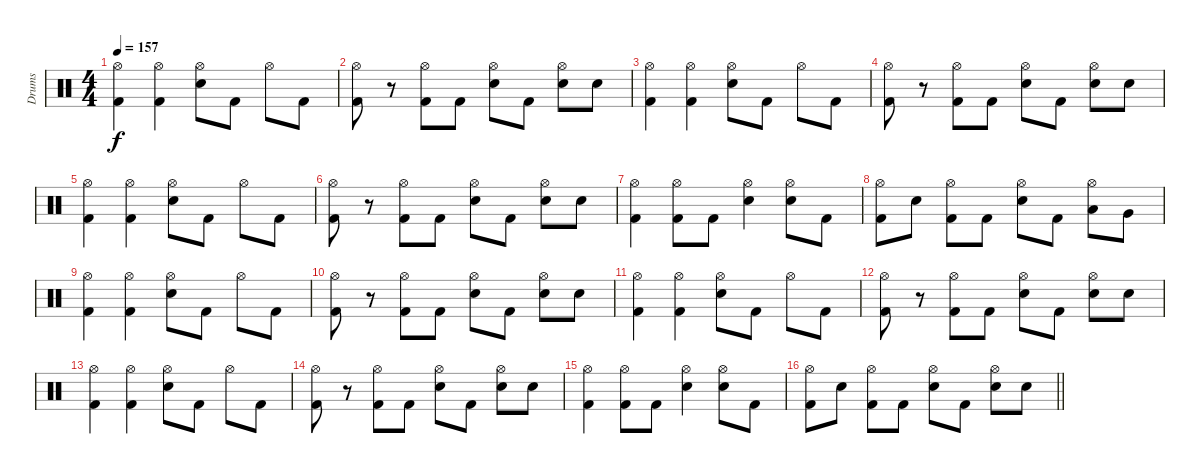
\track ("Drums" "Drums") {instrument percussion}
\staff {score}
\articulation defaults
\ts (4 4)
\tempo 157
\clef neutral
\ks c
("Hi-Hat (open)" "Kick (hit) 2").4{dy f} ("Hi-Hat (open)" "Kick (hit) 2").4 ("Hi-Hat (open)" "Electric Snare (hit)").8 "Kick (hit) 2".8 "Hi-Hat (open)".8 "Kick (hit) 2".8 |
("Hi-Hat (open)" "Kick (hit) 2").8 r.8 ("Hi-Hat (open)" "Kick (hit) 2").8 "Kick (hit) 2".8 ("Hi-Hat (open)" "Electric Snare (hit)").8 "Kick (hit) 2".8 ("Hi-Hat (open)" "Electric Snare (hit)").8 "Electric Snare (hit)".8 |
("Hi-Hat (open)" "Kick (hit) 2").4 ("Hi-Hat (open)" "Kick (hit) 2").4 ("Hi-Hat (open)" "Electric Snare (hit)").8 "Kick (hit) 2".8 "Hi-Hat (open)".8 "Kick (hit) 2".8 |
("Hi-Hat (open)" "Kick (hit) 2").8 r.8 ("Hi-Hat (open)" "Kick (hit) 2").8 "Kick (hit) 2".8 ("Hi-Hat (open)" "Electric Snare (hit)").8 "Kick (hit) 2".8 ("Hi-Hat (open)" "Electric Snare (hit)").8 "Electric Snare (hit)".8 |
("Hi-Hat (open)" "Kick (hit) 2").4 ("Hi-Hat (open)" "Kick (hit) 2").4 ("Hi-Hat (open)" "Electric Snare (hit)").8 "Kick (hit) 2".8 "Hi-Hat (open)".8 "Kick (hit) 2".8 |
("Hi-Hat (open)" "Kick (hit) 2").8 r.8 ("Hi-Hat (open)" "Kick (hit) 2").8 "Kick (hit) 2".8 ("Hi-Hat (open)" "Electric Snare (hit)").8 "Kick (hit) 2".8 ("Hi-Hat (open)" "Electric Snare (hit)").8 "Electric Snare (hit)".8 |
("Hi-Hat (open)" "Kick (hit) 2").4 ("Hi-Hat (open)" "Kick (hit) 2").8 "Kick (hit) 2".8 ("Hi-Hat (open)" "Electric Snare (hit)").4 ("Hi-Hat (open)" "Electric Snare (hit)").8 "Kick (hit) 2".8 |
("Hi-Hat (open)" "Kick (hit) 2").8 "Electric Snare (hit)".8 ("Hi-Hat (open)" "Kick (hit) 2").8 "Kick (hit) 2".8 ("Hi-Hat (open)" "Electric Snare (hit)").8 "Kick (hit) 2".8 ("Hi-Hat (open)" "Low Tom (hit)").8 "Very Low Tom (hit)".8 |
("Hi-Hat (open)" "Kick (hit) 2").4 ("Hi-Hat (open)" "Kick (hit) 2").4 ("Hi-Hat (open)" "Electric Snare (hit)").8 "Kick (hit) 2".8 "Hi-Hat (open)".8 "Kick (hit) 2".8 |
("Hi-Hat (open)" "Kick (hit) 2").8 r.8 ("Hi-Hat (open)" "Kick (hit) 2").8 "Kick (hit) 2".8 ("Hi-Hat (open)" "Electric Snare (hit)").8 "Kick (hit) 2".8 ("Hi-Hat (open)" "Electric Snare (hit)").8 "Electric Snare (hit)".8 |
("Hi-Hat (open)" "Kick (hit) 2").4 ("Hi-Hat (open)" "Kick (hit) 2").4 ("Hi-Hat (open)" "Electric Snare (hit)").8 "Kick (hit) 2".8 "Hi-Hat (open)".8 "Kick (hit) 2".8 |
("Hi-Hat (open)" "Kick (hit) 2").8 r.8 ("Hi-Hat (open)" "Kick (hit) 2").8 "Kick (hit) 2".8 ("Hi-Hat (open)" "Electric Snare (hit)").8 "Kick (hit) 2".8 ("Hi-Hat (open)" "Electric Snare (hit)").8 "Electric Snare (hit)".8 |
("Hi-Hat (open)" "Kick (hit) 2").4 ("Hi-Hat (open)" "Kick (hit) 2").4 ("Hi-Hat (open)" "Electric Snare (hit)").8 "Kick (hit) 2".8 "Hi-Hat (open)".8 "Kick (hit) 2".8 |
("Hi-Hat (open)" "Kick (hit) 2").8 r.8 ("Hi-Hat (open)" "Kick (hit) 2").8 "Kick (hit) 2".8 ("Hi-Hat (open)" "Electric Snare (hit)").8 "Kick (hit) 2".8 ("Hi-Hat (open)" "Electric Snare (hit)").8 "Electric Snare (hit)".8 |
("Hi-Hat (open)" "Kick (hit) 2").4 ("Hi-Hat (open)" "Kick (hit) 2").8 "Kick (hit) 2".8 ("Hi-Hat (open)" "Electric Snare (hit)").4 ("Hi-Hat (open)" "Electric Snare (hit)").8 "Kick (hit) 2".8 |
\barLineRight lightlight
("Hi-Hat (open)" "Kick (hit) 2").8 "Electric Snare (hit)".8 ("Hi-Hat (open)" "Kick (hit) 2").8 "Kick (hit) 2".8 ("Hi-Hat (open)" "Electric Snare (hit)").8 "Kick (hit) 2".8 ("Hi-Hat (open)" "Electric Snare (hit)").8 "Electric Snare (hit)".8
